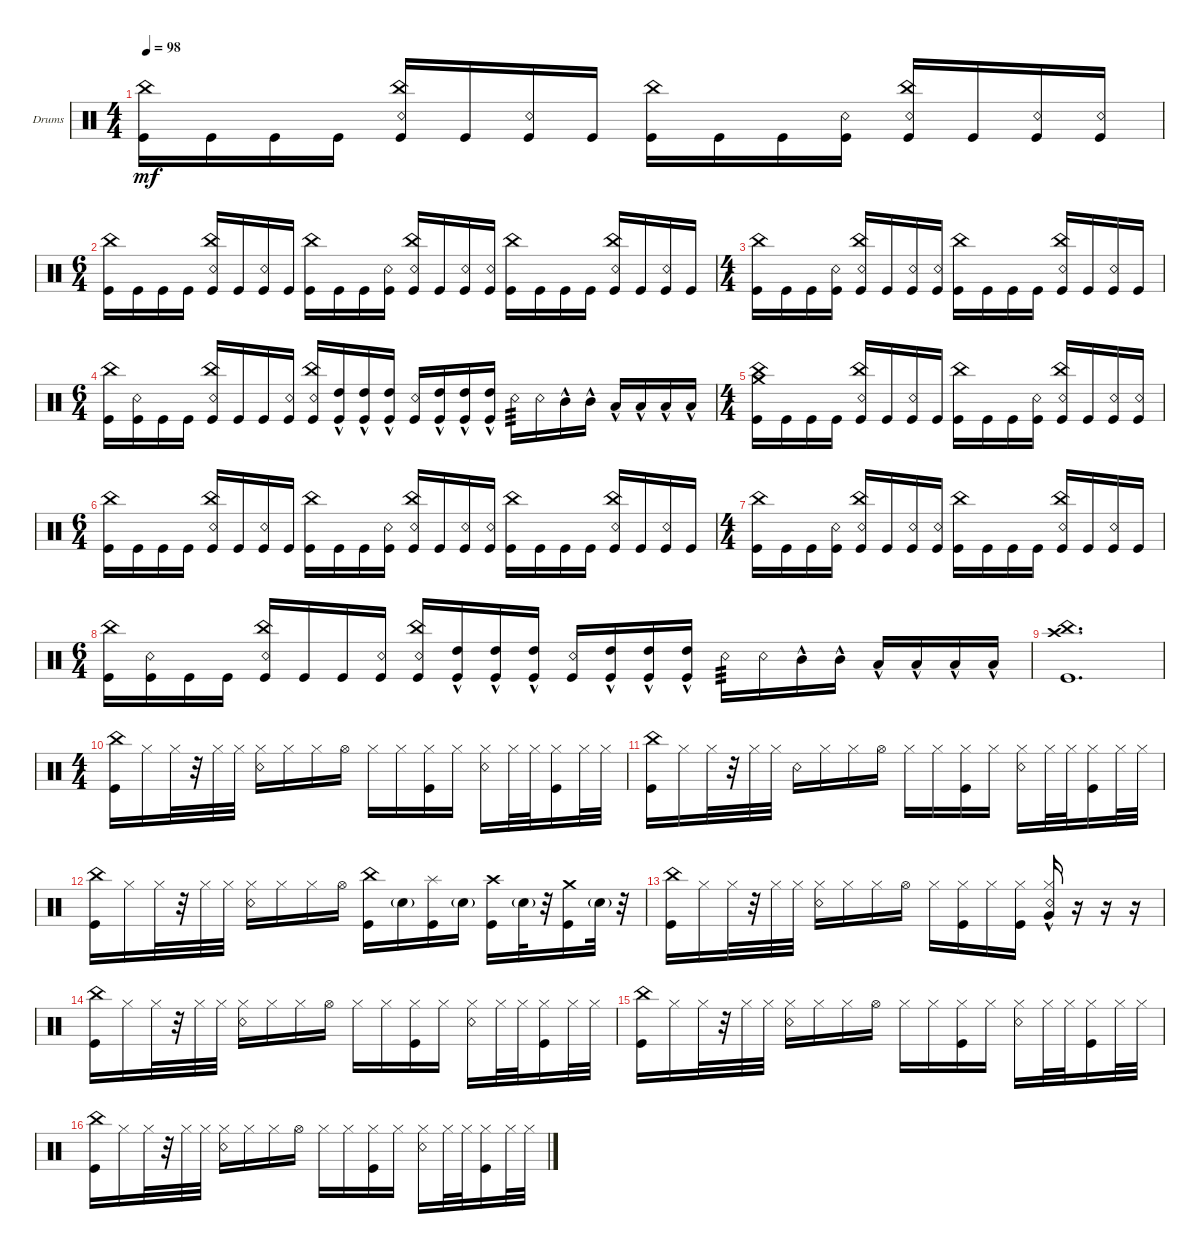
\defaultSystemsLayout 4
\bracketExtendMode groupsimilarinstruments
\firstSystemTrackNameOrientation horizontal
\otherSystemsTrackNameOrientation horizontal
\track ("Drumkit" "Drums") {instrument percussion}
\staff {score}
\articulation defaults
\ts (4 4)
\tempo 98
\clef neutral
\scale
0.333333
\ks c
("Kick (hit)" "China (hit)").16{dy mf} "Kick (hit)".16 "Kick (hit)".16 "Kick (hit)".16 ("Kick (hit)" "Snare (rim shot)" "China (hit)").16 "Kick (hit)".16 ("Kick (hit)" "Snare (rim shot)").16 "Kick (hit)".16 ("Kick (hit)" "China (hit)").16 "Kick (hit)".16 "Kick (hit)".16 ("Kick (hit)" "Snare (rim shot)").16 ("Kick (hit)" "China (hit)" "Snare (rim shot)").16 "Kick (hit)".16 ("Kick (hit)" "Snare (rim shot)").16 ("Kick (hit)" "Snare (rim shot)").16 |
\ts (6 4)
\scale
0.333333 ("Kick (hit)" "China (hit)").16 "Kick (hit)".16 "Kick (hit)".16 "Kick (hit)".16 ("Kick (hit)" "Snare (rim shot)" "China (hit)").16 "Kick (hit)".16 ("Kick (hit)" "Snare (rim shot)").16 "Kick (hit)".16 ("Kick (hit)" "China (hit)").16 "Kick (hit)".16 "Kick (hit)".16 ("Kick (hit)" "Snare (rim shot)").16 ("Kick (hit)" "China (hit)" "Snare (rim shot)").16 "Kick (hit)".16 ("Kick (hit)" "Snare (rim shot)").16 ("Kick (hit)" "Snare (rim shot)").16 ("Kick (hit)" "China (hit)").16 "Kick (hit)".16 "Kick (hit)".16 "Kick (hit)".16 ("Kick (hit)" "Snare (rim shot)" "China (hit)").16 "Kick (hit)".16 ("Kick (hit)" "Snare (rim shot)").16 "Kick (hit)".16 |
\ts (4 4)
\scale
0.333333 ("Kick (hit)" "China (hit)").16 "Kick (hit)".16 "Kick (hit)".16 ("Kick (hit)" "Snare (rim shot)").16 ("Kick (hit)" "China (hit)" "Snare (rim shot)").16 "Kick (hit)".16 ("Kick (hit)" "Snare (rim shot)").16 ("Kick (hit)" "Snare (rim shot)").16 ("Kick (hit)" "China (hit)").16 "Kick (hit)".16 "Kick (hit)".16 "Kick (hit)".16 ("Kick (hit)" "Snare (rim shot)" "China (hit)").16 "Kick (hit)".16 ("Kick (hit)" "Snare (rim shot)").16 "Kick (hit)".16 |
\ts (6 4)
\scale
0.333333 ("Kick (hit)" "China (hit)").16 ("Kick (hit)" "Snare (rim shot)").16 "Kick (hit)".16 "Kick (hit)".16 ("Kick (hit)" "China (hit)" "Snare (rim shot)").16 "Kick (hit)".16 "Kick (hit)".16 ("Kick (hit)" "Snare (rim shot)").16 ("Kick (hit)" "China (hit)" "Snare (rim shot)").16 ("Kick (hit)" "High Tom (hit)"{hac}).16 ("Kick (hit)" "High Tom (hit)"{hac}).16 ("Kick (hit)" "High Tom (hit)"{hac}).16 ("Kick (hit)" "Snare (rim shot)").16 ("Kick (hit)" "High Tom (hit)"{hac}).16 ("Kick (hit)" "High Tom (hit)"{hac}).16 ("Kick (hit)" "High Tom (hit)"{hac}).16 "Snare (rim shot)".16{tp 3} "Snare (rim shot)".16 "Mid Tom (hit)"{hac}.16 "Mid Tom (hit)"{hac}.16 "Low Tom (hit)"{hac}.16 "Low Tom (hit)"{hac}.16 "Low Tom (hit)"{hac}.16 "Low Tom (hit)"{hac}.16 |
\ts (4 4)
("Kick (hit)" "China (hit)" "Crash medium (hit)").16 "Kick (hit)".16 "Kick (hit)".16 "Kick (hit)".16 ("Kick (hit)" "Snare (rim shot)" "China (hit)").16 "Kick (hit)".16 ("Kick (hit)" "Snare (rim shot)").16 "Kick (hit)".16 ("Kick (hit)" "China (hit)").16 "Kick (hit)".16 "Kick (hit)".16 ("Kick (hit)" "Snare (rim shot)").16 ("Kick (hit)" "China (hit)" "Snare (rim shot)").16 "Kick (hit)".16 ("Kick (hit)" "Snare (rim shot)").16 ("Kick (hit)" "Snare (rim shot)").16 |
\ts (6 4)
("Kick (hit)" "China (hit)").16 "Kick (hit)".16 "Kick (hit)".16 "Kick (hit)".16 ("Kick (hit)" "Snare (rim shot)" "China (hit)").16 "Kick (hit)".16 ("Kick (hit)" "Snare (rim shot)").16 "Kick (hit)".16 ("Kick (hit)" "China (hit)").16 "Kick (hit)".16 "Kick (hit)".16 ("Kick (hit)" "Snare (rim shot)").16 ("Kick (hit)" "China (hit)" "Snare (rim shot)").16 "Kick (hit)".16 ("Kick (hit)" "Snare (rim shot)").16 ("Kick (hit)" "Snare (rim shot)").16 ("Kick (hit)" "China (hit)").16 "Kick (hit)".16 "Kick (hit)".16 "Kick (hit)".16 ("Kick (hit)" "Snare (rim shot)" "China (hit)").16 "Kick (hit)".16 ("Kick (hit)" "Snare (rim shot)").16 "Kick (hit)".16 |
\ts (4 4)
("Kick (hit)" "China (hit)").16 "Kick (hit)".16 "Kick (hit)".16 ("Kick (hit)" "Snare (rim shot)").16 ("Kick (hit)" "China (hit)" "Snare (rim shot)").16 "Kick (hit)".16 ("Kick (hit)" "Snare (rim shot)").16 ("Kick (hit)" "Snare (rim shot)").16 ("Kick (hit)" "China (hit)").16 "Kick (hit)".16 "Kick (hit)".16 "Kick (hit)".16 ("Kick (hit)" "Snare (rim shot)" "China (hit)").16 "Kick (hit)".16 ("Kick (hit)" "Snare (rim shot)").16 "Kick (hit)".16 |
\ts (6 4)
("Kick (hit)" "China (hit)").16 ("Kick (hit)" "Snare (rim shot)").16 "Kick (hit)".16 "Kick (hit)".16 ("Kick (hit)" "China (hit)" "Snare (rim shot)").16 "Kick (hit)".16 "Kick (hit)".16 ("Kick (hit)" "Snare (rim shot)").16 ("Kick (hit)" "China (hit)" "Snare (rim shot)").16 ("Kick (hit)" "High Tom (hit)"{hac}).16 ("Kick (hit)" "High Tom (hit)"{hac}).16 ("Kick (hit)" "High Tom (hit)"{hac}).16 ("Kick (hit)" "Snare (rim shot)").16 ("Kick (hit)" "High Tom (hit)"{hac}).16 ("Kick (hit)" "High Tom (hit)"{hac}).16 ("Kick (hit)" "High Tom (hit)"{hac}).16 "Snare (rim shot)".16{tp 3} "Snare (rim shot)".16 "Mid Tom (hit)"{hac}.16 "Mid Tom (hit)"{hac}.16 "Low Tom (hit)"{hac}.16 "Low Tom (hit)"{hac}.16 "Low Tom (hit)"{hac}.16 "Low Tom (hit)"{hac}.16 |
("Kick (hit)" "China (hit)" "Crash high (hit)").1{d} |
\ts (4 4)
\scale
0.333333 ("Kick (hit)" "China (hit)").16 "Hi-Hat (closed)".16 "Hi-Hat (closed)".32 r.32 "Hi-Hat (closed)".32 "Hi-Hat (closed)".32 ("Hi-Hat (closed)" "Snare (rim shot)").16 "Hi-Hat (closed)".16 "Hi-Hat (closed)".16 "Hi-Hat (open)".16 "Hi-Hat (closed)".16 "Hi-Hat (closed)".16 ("Hi-Hat (closed)" "Kick (hit)").16 "Hi-Hat (closed)".16 ("Hi-Hat (closed)" "Snare (rim shot)").16 "Hi-Hat (closed)".32 "Hi-Hat (closed)".32 ("Hi-Hat (closed)" "Kick (hit)").16 "Hi-Hat (closed)".32 "Hi-Hat (closed)".32 |
\scale
0.333333 ("Kick (hit)" "China (hit)").16 "Hi-Hat (closed)".16 "Hi-Hat (closed)".32 r.32 "Hi-Hat (closed)".32 "Hi-Hat (closed)".32 "Snare (rim shot)".16 "Hi-Hat (closed)".16 "Hi-Hat (closed)".16 "Hi-Hat (open)".16 "Hi-Hat (closed)".16 "Hi-Hat (closed)".16 ("Hi-Hat (closed)" "Kick (hit)").16 "Hi-Hat (closed)".16 ("Hi-Hat (closed)" "Snare (rim shot)").16 "Hi-Hat (closed)".32 "Hi-Hat (closed)".32 ("Hi-Hat (closed)" "Kick (hit)").16 "Hi-Hat (closed)".32 "Hi-Hat (closed)".32 |
\scale
0.333333 ("Kick (hit)" "China (hit)").16 "Hi-Hat (closed)".16 "Hi-Hat (closed)".32 r.32 "Hi-Hat (closed)".32 "Hi-Hat (closed)".32 ("Hi-Hat (closed)" "Snare (rim shot)").16 "Hi-Hat (closed)".16 "Hi-Hat (closed)".16 "Hi-Hat (open)".16 ("China (hit)" "Kick (hit)").16 "Snare (hit) 2"{g}.16 ("Kick (hit)" "Splash (hit)").16 "Snare (hit) 2"{g}.16 ("Kick (hit)" "Crash high (hit)").16 "Snare (hit) 2"{g}.32 r.32 ("Kick (hit)" "Crash medium (hit)").16 "Snare (hit) 2"{g}.32 r.32 |
\scale
0.333333 ("Kick (hit)" "China (hit)").16 "Hi-Hat (closed)".16 "Hi-Hat (closed)".32 r.32 "Hi-Hat (closed)".32 "Hi-Hat (closed)".32 ("Hi-Hat (closed)" "Snare (rim shot)").16 "Hi-Hat (closed)".16 "Hi-Hat (closed)".16 "Hi-Hat (open)".16 "Hi-Hat (closed)".16 ("Hi-Hat (closed)" "Kick (hit)").16 "Hi-Hat (closed)".16 ("Hi-Hat (closed)" "Kick (hit)").16 ("Hi-Hat (closed)" "Snare (rim shot)" "Very Low Tom (hit)"{hac}).16 r.16 r.16 r.16 |
\scale
0.333333 ("Kick (hit)" "China (hit)").16 "Hi-Hat (closed)".16 "Hi-Hat (closed)".32 r.32 "Hi-Hat (closed)".32 "Hi-Hat (closed)".32 ("Hi-Hat (closed)" "Snare (rim shot)").16 "Hi-Hat (closed)".16 "Hi-Hat (closed)".16 "Hi-Hat (open)".16 "Hi-Hat (closed)".16 "Hi-Hat (closed)".16 ("Hi-Hat (closed)" "Kick (hit)").16 "Hi-Hat (closed)".16 ("Hi-Hat (closed)" "Snare (rim shot)").16 "Hi-Hat (closed)".32 "Hi-Hat (closed)".32 ("Hi-Hat (closed)" "Kick (hit)").16 "Hi-Hat (closed)".32 "Hi-Hat (closed)".32 |
\scale
0.333333 ("Kick (hit)" "China (hit)").16 "Hi-Hat (closed)".16 "Hi-Hat (closed)".32 r.32 "Hi-Hat (closed)".32 "Hi-Hat (closed)".32 ("Hi-Hat (closed)" "Snare (rim shot)").16 "Hi-Hat (closed)".16 "Hi-Hat (closed)".16 "Hi-Hat (open)".16 "Hi-Hat (closed)".16 "Hi-Hat (closed)".16 ("Hi-Hat (closed)" "Kick (hit)").16 "Hi-Hat (closed)".16 ("Hi-Hat (closed)" "Snare (rim shot)").16 "Hi-Hat (closed)".32 "Hi-Hat (closed)".32 ("Hi-Hat (closed)" "Kick (hit)").16 "Hi-Hat (closed)".32 "Hi-Hat (closed)".32 |
\scale
0.333333 ("Kick (hit)" "China (hit)").16 "Hi-Hat (closed)".16 "Hi-Hat (closed)".32 r.32 "Hi-Hat (closed)".32 "Hi-Hat (closed)".32 ("Hi-Hat (closed)" "Snare (rim shot)").16 "Hi-Hat (closed)".16 "Hi-Hat (closed)".16 "Hi-Hat (open)".16 "Hi-Hat (closed)".16 "Hi-Hat (closed)".16 ("Hi-Hat (closed)" "Kick (hit)").16 "Hi-Hat (closed)".16 ("Hi-Hat (closed)" "Snare (rim shot)").16 "Hi-Hat (closed)".32 "Hi-Hat (closed)".32 ("Hi-Hat (closed)" "Kick (hit)").16 "Hi-Hat (closed)".32 "Hi-Hat (closed)".32
